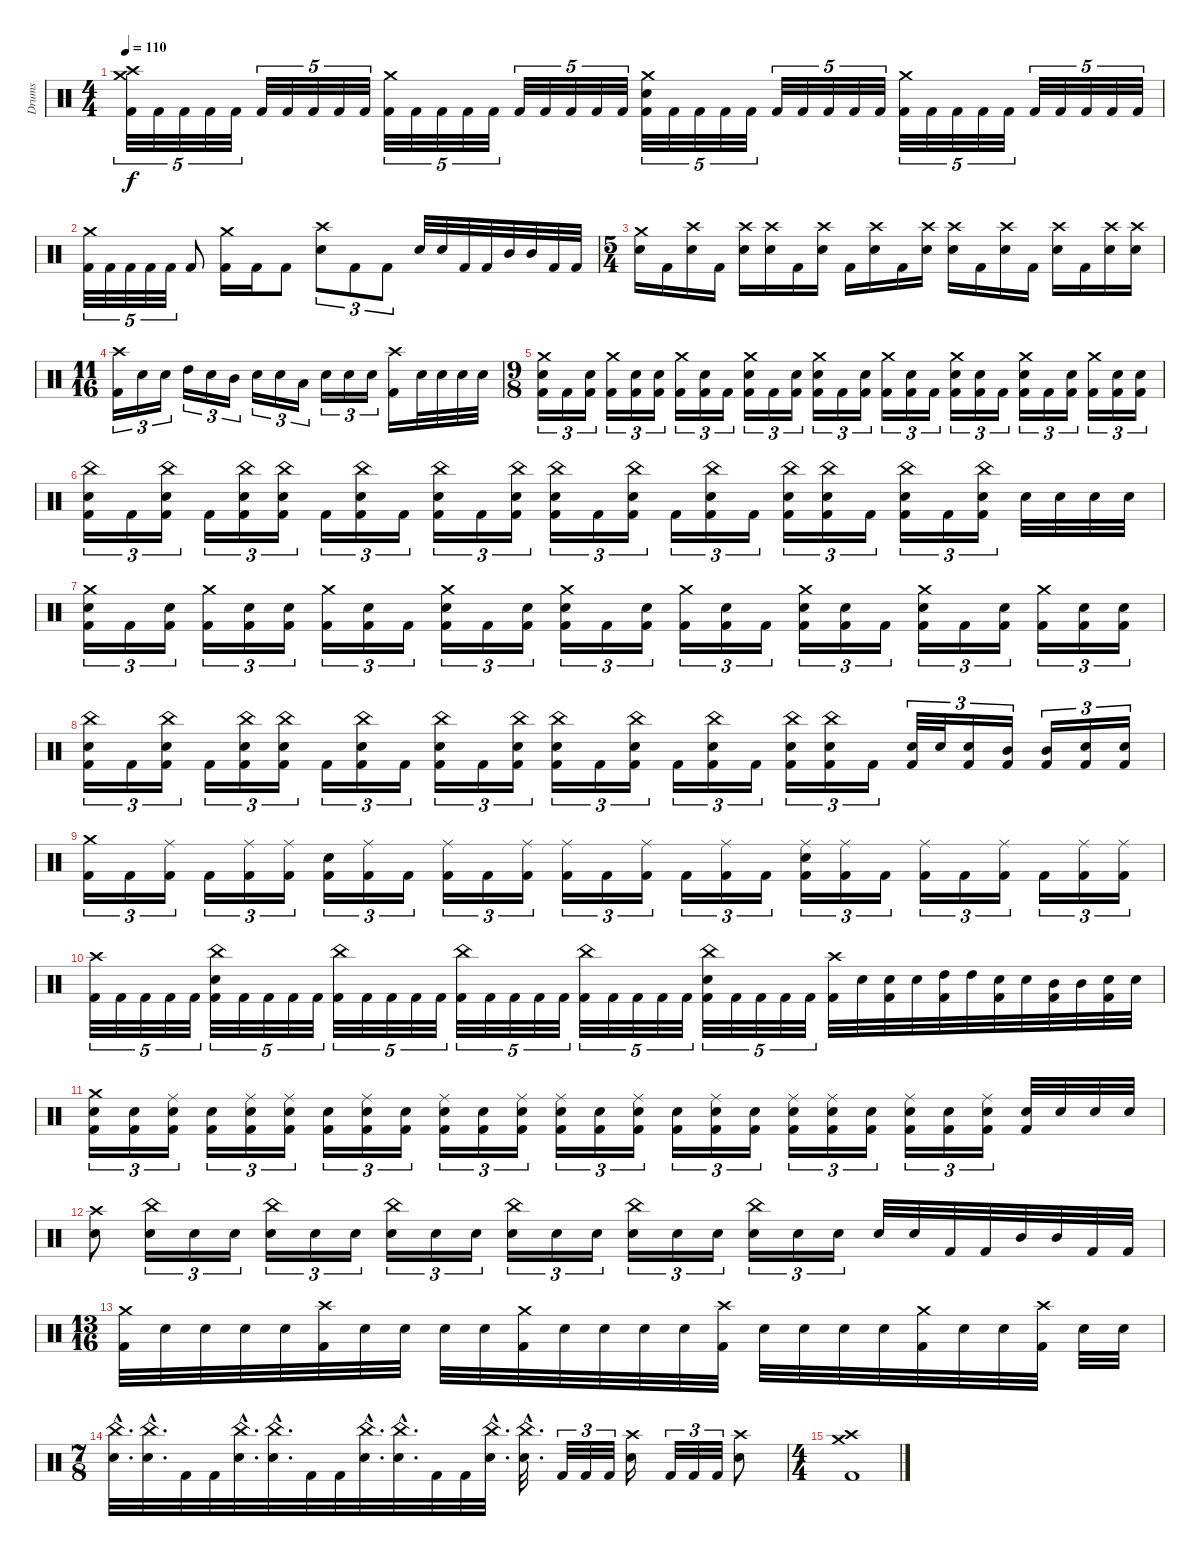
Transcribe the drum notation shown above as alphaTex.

\track ("Drums" "Drums") {instrument percussion}
\staff {score}
\articulation defaults
\ts (4 4)
\tempo 110
\clef neutral
\ks c
("Crash medium (hit)" "Crash high (hit)" "Kick (hit) 2").32{tu (5 4) dy f} "Kick (hit) 2".32{tu (5 4)} "Kick (hit) 2".32{tu (5 4)} "Kick (hit) 2".32{tu (5 4)} "Kick (hit) 2".32{tu (5 4)} "Kick (hit) 2".32{tu (5 4)} "Kick (hit) 2".32{tu (5 4)} "Kick (hit) 2".32{tu (5 4)} "Kick (hit) 2".32{tu (5 4)} "Kick (hit) 2".32{tu (5 4)} ("Crash medium (hit)" "Kick (hit) 2").32{tu (5 4)} "Kick (hit) 2".32{tu (5 4)} "Kick (hit) 2".32{tu (5 4)} "Kick (hit) 2".32{tu (5 4)} "Kick (hit) 2".32{tu (5 4)} "Kick (hit) 2".32{tu (5 4)} "Kick (hit) 2".32{tu (5 4)} "Kick (hit) 2".32{tu (5 4)} "Kick (hit) 2".32{tu (5 4)} "Kick (hit) 2".32{tu (5 4)} ("Crash medium (hit)" "Electric Snare (hit)" "Kick (hit) 2").32{tu (5 4)} "Kick (hit) 2".32{tu (5 4)} "Kick (hit) 2".32{tu (5 4)} "Kick (hit) 2".32{tu (5 4)} "Kick (hit) 2".32{tu (5 4)} "Kick (hit) 2".32{tu (5 4)} "Kick (hit) 2".32{tu (5 4)} "Kick (hit) 2".32{tu (5 4)} "Kick (hit) 2".32{tu (5 4)} "Kick (hit) 2".32{tu (5 4)} ("Crash medium (hit)" "Kick (hit) 2").32{tu (5 4)} "Kick (hit) 2".32{tu (5 4)} "Kick (hit) 2".32{tu (5 4)} "Kick (hit) 2".32{tu (5 4)} "Kick (hit) 2".32{tu (5 4)} "Kick (hit) 2".32{tu (5 4)} "Kick (hit) 2".32{tu (5 4)} "Kick (hit) 2".32{tu (5 4)} "Kick (hit) 2".32{tu (5 4)} "Kick (hit) 2".32{tu (5 4)} |
("Crash medium (hit)" "Kick (hit) 2").32{tu (5 4)} "Kick (hit) 2".32{tu (5 4)} "Kick (hit) 2".32{tu (5 4)} "Kick (hit) 2".32{tu (5 4)} "Kick (hit) 2".32{tu (5 4)} "Kick (hit) 2".8 ("Crash medium (hit)" "Kick (hit) 2").16 "Kick (hit) 2".16 "Kick (hit) 2".8 ("Crash high (hit)" "Electric Snare (hit)").8{tu (3 2)} "Kick (hit) 2".8{tu (3 2)} "Kick (hit) 2".8{tu (3 2)} "Electric Snare (hit)".32 "Electric Snare (hit)".32 "Kick (hit) 2".32 "Kick (hit) 2".32 "Mid Tom (hit)".32 "Mid Tom (hit)".32 "Kick (hit) 2".32 "Kick (hit) 2".32 |
\ts (5 4)
("Crash medium (hit)" "Electric Snare (hit)").16 "Kick (hit) 2".16 ("Crash high (hit)" "Electric Snare (hit)").16 "Kick (hit) 2".16 ("Crash high (hit)" "Electric Snare (hit)").16 ("Crash high (hit)" "Electric Snare (hit)").16 "Kick (hit) 2".16 ("Crash high (hit)" "Electric Snare (hit)").16 "Kick (hit) 2".16 ("Crash high (hit)" "Electric Snare (hit)").16 "Kick (hit) 2".16 ("Crash high (hit)" "Electric Snare (hit)").16 ("Crash high (hit)" "Electric Snare (hit)").16 "Kick (hit) 2".16 ("Crash high (hit)" "Electric Snare (hit)").16 "Kick (hit) 2".16 ("Crash high (hit)" "Electric Snare (hit)").16 "Kick (hit) 2".16 ("Crash high (hit)" "Electric Snare (hit)").16 ("Crash high (hit)" "Electric Snare (hit)").16 |
\ts (11 16)
("Crash high (hit)" "Kick (hit) 2").16{tu (3 2)} "Electric Snare (hit)".16{tu (3 2)} "Electric Snare (hit)".16{tu (3 2)} "High Tom (hit)".16{tu (3 2)} "Electric Snare (hit)".16{tu (3 2)} "Mid Tom (hit)".16{tu (3 2)} "Electric Snare (hit)".16{tu (3 2)} "Electric Snare (hit)".16{tu (3 2)} "Low Tom (hit)".16{tu (3 2)} "Electric Snare (hit)".16{tu (3 2)} "Electric Snare (hit)".16{tu (3 2)} "Electric Snare (hit)".16{tu (3 2)} ("Crash high (hit)" "Kick (hit) 2").16 "Electric Snare (hit)".32 "Electric Snare (hit)".32 "Electric Snare (hit)".32 "Electric Snare (hit)".32 |
\ts (9 8)
("Crash medium (hit)" "Electric Snare (hit)" "Kick (hit) 2").16{tu (3 2)} "Kick (hit) 2".16{tu (3 2)} ("Electric Snare (hit)" "Kick (hit) 2").16{tu (3 2)} ("Crash medium (hit)" "Kick (hit) 2").16{tu (3 2)} ("Electric Snare (hit)" "Kick (hit) 2").16{tu (3 2)} ("Electric Snare (hit)" "Kick (hit) 2").16{tu (3 2)} ("Crash medium (hit)" "Kick (hit) 2").16{tu (3 2)} ("Electric Snare (hit)" "Kick (hit) 2").16{tu (3 2)} "Kick (hit) 2".16{tu (3 2)} ("Crash medium (hit)" "Electric Snare (hit)" "Kick (hit) 2").16{tu (3 2)} "Kick (hit) 2".16{tu (3 2)} ("Electric Snare (hit)" "Kick (hit) 2").16{tu (3 2)} ("Crash medium (hit)" "Electric Snare (hit)" "Kick (hit) 2").16{tu (3 2)} "Kick (hit) 2".16{tu (3 2)} ("Electric Snare (hit)" "Kick (hit) 2").16{tu (3 2)} ("Crash medium (hit)" "Kick (hit) 2").16{tu (3 2)} ("Electric Snare (hit)" "Kick (hit) 2").16{tu (3 2)} "Kick (hit) 2".16{tu (3 2)} ("Crash medium (hit)" "Electric Snare (hit)" "Kick (hit) 2").16{tu (3 2)} ("Electric Snare (hit)" "Kick (hit) 2").16{tu (3 2)} "Kick (hit) 2".16{tu (3 2)} ("Crash medium (hit)" "Electric Snare (hit)" "Kick (hit) 2").16{tu (3 2)} "Kick (hit) 2".16{tu (3 2)} ("Electric Snare (hit)" "Kick (hit) 2").16{tu (3 2)} ("Crash medium (hit)" "Kick (hit) 2").16{tu (3 2)} ("Electric Snare (hit)" "Kick (hit) 2").16{tu (3 2)} ("Electric Snare (hit)" "Kick (hit) 2").16{tu (3 2)} |
("China (hit)" "Electric Snare (hit)" "Kick (hit) 2").16{tu (3 2)} "Kick (hit) 2".16{tu (3 2)} ("China (hit)" "Electric Snare (hit)" "Kick (hit) 2").16{tu (3 2)} "Kick (hit) 2".16{tu (3 2)} ("China (hit)" "Electric Snare (hit)" "Kick (hit) 2").16{tu (3 2)} ("China (hit)" "Electric Snare (hit)" "Kick (hit) 2").16{tu (3 2)} "Kick (hit) 2".16{tu (3 2)} ("China (hit)" "Electric Snare (hit)" "Kick (hit) 2").16{tu (3 2)} "Kick (hit) 2".16{tu (3 2)} ("China (hit)" "Electric Snare (hit)" "Kick (hit) 2").16{tu (3 2)} "Kick (hit) 2".16{tu (3 2)} ("China (hit)" "Electric Snare (hit)" "Kick (hit) 2").16{tu (3 2)} ("China (hit)" "Electric Snare (hit)" "Kick (hit) 2").16{tu (3 2)} "Kick (hit) 2".16{tu (3 2)} ("China (hit)" "Electric Snare (hit)" "Kick (hit) 2").16{tu (3 2)} "Kick (hit) 2".16{tu (3 2)} ("China (hit)" "Electric Snare (hit)" "Kick (hit) 2").16{tu (3 2)} "Kick (hit) 2".16{tu (3 2)} ("China (hit)" "Electric Snare (hit)" "Kick (hit) 2").16{tu (3 2)} ("China (hit)" "Electric Snare (hit)" "Kick (hit) 2").16{tu (3 2)} "Kick (hit) 2".16{tu (3 2)} ("China (hit)" "Electric Snare (hit)" "Kick (hit) 2").16{tu (3 2)} "Kick (hit) 2".16{tu (3 2)} ("China (hit)" "Electric Snare (hit)" "Kick (hit) 2").16{tu (3 2)} "Electric Snare (hit)".32 "Electric Snare (hit)".32 "Electric Snare (hit)".32 "Electric Snare (hit)".32 |
("Crash medium (hit)" "Electric Snare (hit)" "Kick (hit) 2").16{tu (3 2)} "Kick (hit) 2".16{tu (3 2)} ("Electric Snare (hit)" "Kick (hit) 2").16{tu (3 2)} ("Crash medium (hit)" "Kick (hit) 2").16{tu (3 2)} ("Electric Snare (hit)" "Kick (hit) 2").16{tu (3 2)} ("Electric Snare (hit)" "Kick (hit) 2").16{tu (3 2)} ("Crash medium (hit)" "Kick (hit) 2").16{tu (3 2)} ("Electric Snare (hit)" "Kick (hit) 2").16{tu (3 2)} "Kick (hit) 2".16{tu (3 2)} ("Crash medium (hit)" "Electric Snare (hit)" "Kick (hit) 2").16{tu (3 2)} "Kick (hit) 2".16{tu (3 2)} ("Electric Snare (hit)" "Kick (hit) 2").16{tu (3 2)} ("Crash medium (hit)" "Electric Snare (hit)" "Kick (hit) 2").16{tu (3 2)} "Kick (hit) 2".16{tu (3 2)} ("Electric Snare (hit)" "Kick (hit) 2").16{tu (3 2)} ("Crash medium (hit)" "Kick (hit) 2").16{tu (3 2)} ("Electric Snare (hit)" "Kick (hit) 2").16{tu (3 2)} "Kick (hit) 2".16{tu (3 2)} ("Crash medium (hit)" "Electric Snare (hit)" "Kick (hit) 2").16{tu (3 2)} ("Electric Snare (hit)" "Kick (hit) 2").16{tu (3 2)} "Kick (hit) 2".16{tu (3 2)} ("Crash medium (hit)" "Electric Snare (hit)" "Kick (hit) 2").16{tu (3 2)} "Kick (hit) 2".16{tu (3 2)} ("Electric Snare (hit)" "Kick (hit) 2").16{tu (3 2)} ("Crash medium (hit)" "Kick (hit) 2").16{tu (3 2)} ("Electric Snare (hit)" "Kick (hit) 2").16{tu (3 2)} ("Electric Snare (hit)" "Kick (hit) 2").16{tu (3 2)} |
("China (hit)" "Electric Snare (hit)" "Kick (hit) 2").16{tu (3 2)} "Kick (hit) 2".16{tu (3 2)} ("China (hit)" "Electric Snare (hit)" "Kick (hit) 2").16{tu (3 2)} "Kick (hit) 2".16{tu (3 2)} ("China (hit)" "Electric Snare (hit)" "Kick (hit) 2").16{tu (3 2)} ("China (hit)" "Electric Snare (hit)" "Kick (hit) 2").16{tu (3 2)} "Kick (hit) 2".16{tu (3 2)} ("China (hit)" "Electric Snare (hit)" "Kick (hit) 2").16{tu (3 2)} "Kick (hit) 2".16{tu (3 2)} ("China (hit)" "Electric Snare (hit)" "Kick (hit) 2").16{tu (3 2)} "Kick (hit) 2".16{tu (3 2)} ("China (hit)" "Electric Snare (hit)" "Kick (hit) 2").16{tu (3 2)} ("China (hit)" "Electric Snare (hit)" "Kick (hit) 2").16{tu (3 2)} "Kick (hit) 2".16{tu (3 2)} ("China (hit)" "Electric Snare (hit)" "Kick (hit) 2").16{tu (3 2)} "Kick (hit) 2".16{tu (3 2)} ("China (hit)" "Electric Snare (hit)" "Kick (hit) 2").16{tu (3 2)} "Kick (hit) 2".16{tu (3 2)} ("China (hit)" "Electric Snare (hit)" "Kick (hit) 2").16{tu (3 2)} ("China (hit)" "Electric Snare (hit)" "Kick (hit) 2").16{tu (3 2)} "Kick (hit) 2".16{tu (3 2)} ("Electric Snare (hit)" "Kick (hit) 2").32{tu (3 2)} "Electric Snare (hit)".32{tu (3 2)} ("Electric Snare (hit)" "Kick (hit) 2").16{tu (3 2)} ("Mid Tom (hit)" "Kick (hit) 2").16{tu (3 2)} ("Mid Tom (hit)" "Kick (hit) 2").16{tu (3 2)} ("Electric Snare (hit)" "Kick (hit) 2").16{tu (3 2)} ("Electric Snare (hit)" "Kick (hit) 2").16{tu (3 2)} |
("Crash medium (hit)" "Kick (hit) 2").16{tu (3 2)} "Kick (hit) 2".16{tu (3 2)} ("Ride (middle)" "Kick (hit) 2").16{tu (3 2)} "Kick (hit) 2".16{tu (3 2)} ("Ride (middle)" "Kick (hit) 2").16{tu (3 2)} ("Ride (middle)" "Kick (hit) 2").16{tu (3 2)} ("Electric Snare (hit)" "Kick (hit) 2").16{tu (3 2)} ("Ride (middle)" "Kick (hit) 2").16{tu (3 2)} "Kick (hit) 2".16{tu (3 2)} ("Ride (middle)" "Kick (hit) 2").16{tu (3 2)} "Kick (hit) 2".16{tu (3 2)} ("Ride (middle)" "Kick (hit) 2").16{tu (3 2)} ("Ride (middle)" "Kick (hit) 2").16{tu (3 2)} "Kick (hit) 2".16{tu (3 2)} ("Ride (middle)" "Kick (hit) 2").16{tu (3 2)} "Kick (hit) 2".16{tu (3 2)} ("Ride (middle)" "Kick (hit) 2").16{tu (3 2)} "Kick (hit) 2".16{tu (3 2)} ("Ride (middle)" "Electric Snare (hit)" "Kick (hit) 2").16{tu (3 2)} ("Ride (middle)" "Kick (hit) 2").16{tu (3 2)} "Kick (hit) 2".16{tu (3 2)} ("Ride (middle)" "Kick (hit) 2").16{tu (3 2)} "Kick (hit) 2".16{tu (3 2)} ("Ride (middle)" "Kick (hit) 2").16{tu (3 2)} "Kick (hit) 2".16{tu (3 2)} ("Ride (middle)" "Kick (hit) 2").16{tu (3 2)} ("Ride (middle)" "Kick (hit) 2").16{tu (3 2)} |
("Crash high (hit)" "Kick (hit) 2").32{tu (5 4)} "Kick (hit) 2".32{tu (5 4)} "Kick (hit) 2".32{tu (5 4)} "Kick (hit) 2".32{tu (5 4)} "Kick (hit) 2".32{tu (5 4)} ("China (hit)" "Electric Snare (hit)" "Kick (hit) 2").32{tu (5 4)} "Kick (hit) 2".32{tu (5 4)} "Kick (hit) 2".32{tu (5 4)} "Kick (hit) 2".32{tu (5 4)} "Kick (hit) 2".32{tu (5 4)} ("China (hit)" "Kick (hit) 2").32{tu (5 4)} "Kick (hit) 2".32{tu (5 4)} "Kick (hit) 2".32{tu (5 4)} "Kick (hit) 2".32{tu (5 4)} "Kick (hit) 2".32{tu (5 4)} ("China (hit)" "Kick (hit) 2").32{tu (5 4)} "Kick (hit) 2".32{tu (5 4)} "Kick (hit) 2".32{tu (5 4)} "Kick (hit) 2".32{tu (5 4)} "Kick (hit) 2".32{tu (5 4)} ("China (hit)" "Kick (hit) 2").32{tu (5 4)} "Kick (hit) 2".32{tu (5 4)} "Kick (hit) 2".32{tu (5 4)} "Kick (hit) 2".32{tu (5 4)} "Kick (hit) 2".32{tu (5 4)} ("China (hit)" "Electric Snare (hit)" "Kick (hit) 2").32{tu (5 4)} "Kick (hit) 2".32{tu (5 4)} "Kick (hit) 2".32{tu (5 4)} "Kick (hit) 2".32{tu (5 4)} "Kick (hit) 2".32{tu (5 4)} ("Crash high (hit)" "Kick (hit) 2").32 "Electric Snare (hit)".32 ("Electric Snare (hit)" "Kick (hit) 2").32 "Electric Snare (hit)".32 ("High Tom (hit)" "Kick (hit) 2").32 "High Tom (hit)".32 ("Electric Snare (hit)" "Kick (hit) 2").32 "Electric Snare (hit)".32 ("Mid Tom (hit)" "Kick (hit) 2").32 "Mid Tom (hit)".32 ("Electric Snare (hit)" "Kick (hit) 2").32 "Electric Snare (hit)".32 |
("Crash medium (hit)" "Electric Snare (hit)" "Kick (hit) 2").16{tu (3 2)} ("Electric Snare (hit)" "Kick (hit) 2").16{tu (3 2)} ("Ride (middle)" "Electric Snare (hit)" "Kick (hit) 2").16{tu (3 2)} ("Electric Snare (hit)" "Kick (hit) 2").16{tu (3 2)} ("Ride (middle)" "Electric Snare (hit)" "Kick (hit) 2").16{tu (3 2)} ("Ride (middle)" "Electric Snare (hit)" "Kick (hit) 2").16{tu (3 2)} ("Electric Snare (hit)" "Kick (hit) 2").16{tu (3 2)} ("Ride (middle)" "Electric Snare (hit)" "Kick (hit) 2").16{tu (3 2)} ("Electric Snare (hit)" "Kick (hit) 2").16{tu (3 2)} ("Ride (middle)" "Electric Snare (hit)" "Kick (hit) 2").16{tu (3 2)} ("Electric Snare (hit)" "Kick (hit) 2").16{tu (3 2)} ("Ride (middle)" "Electric Snare (hit)" "Kick (hit) 2").16{tu (3 2)} ("Ride (middle)" "Electric Snare (hit)" "Kick (hit) 2").16{tu (3 2)} ("Electric Snare (hit)" "Kick (hit) 2").16{tu (3 2)} ("Ride (middle)" "Electric Snare (hit)" "Kick (hit) 2").16{tu (3 2)} ("Electric Snare (hit)" "Kick (hit) 2").16{tu (3 2)} ("Ride (middle)" "Electric Snare (hit)" "Kick (hit) 2").16{tu (3 2)} ("Electric Snare (hit)" "Kick (hit) 2").16{tu (3 2)} ("Ride (middle)" "Electric Snare (hit)" "Kick (hit) 2").16{tu (3 2)} ("Ride (middle)" "Electric Snare (hit)" "Kick (hit) 2").16{tu (3 2)} ("Electric Snare (hit)" "Kick (hit) 2").16{tu (3 2)} ("Ride (middle)" "Electric Snare (hit)" "Kick (hit) 2").16{tu (3 2)} ("Electric Snare (hit)" "Kick (hit) 2").16{tu (3 2)} ("Ride (middle)" "Electric Snare (hit)" "Kick (hit) 2").16{tu (3 2)} ("Electric Snare (hit)" "Kick (hit) 2").32 "Electric Snare (hit)".32 "Electric Snare (hit)".32 "Electric Snare (hit)".32 |
("Crash high (hit)" "Electric Snare (hit)").8 ("China (hit)" "Electric Snare (hit)").16{tu (3 2)} "Electric Snare (hit)".16{tu (3 2)} "Electric Snare (hit)".16{tu (3 2)} ("China (hit)" "Electric Snare (hit)").16{tu (3 2)} "Electric Snare (hit)".16{tu (3 2)} "Electric Snare (hit)".16{tu (3 2)} ("China (hit)" "Electric Snare (hit)").16{tu (3 2)} "Electric Snare (hit)".16{tu (3 2)} "Electric Snare (hit)".16{tu (3 2)} ("China (hit)" "Electric Snare (hit)").16{tu (3 2)} "Electric Snare (hit)".16{tu (3 2)} "Electric Snare (hit)".16{tu (3 2)} ("China (hit)" "Electric Snare (hit)").16{tu (3 2)} "Electric Snare (hit)".16{tu (3 2)} "Electric Snare (hit)".16{tu (3 2)} ("China (hit)" "Electric Snare (hit)").16{tu (3 2)} "Electric Snare (hit)".16{tu (3 2)} "Electric Snare (hit)".16{tu (3 2)} "Electric Snare (hit)".32 "Electric Snare (hit)".32 "Kick (hit) 2".32 "Kick (hit) 2".32 "Mid Tom (hit)".32 "Mid Tom (hit)".32 "Kick (hit) 2".32 "Kick (hit) 2".32 |
\ts (13 16)
("Crash medium (hit)" "Kick (hit) 2").32 "Electric Snare (hit)".32 "Electric Snare (hit)".32 "Electric Snare (hit)".32 "Electric Snare (hit)".32 ("Crash high (hit)" "Kick (hit) 2").32 "Electric Snare (hit)".32 "Electric Snare (hit)".32 "Electric Snare (hit)".32 "Electric Snare (hit)".32 ("Crash medium (hit)" "Kick (hit) 2").32 "Electric Snare (hit)".32 "Electric Snare (hit)".32 "Electric Snare (hit)".32 "Electric Snare (hit)".32 ("Crash high (hit)" "Kick (hit) 2").32 "Electric Snare (hit)".32 "Electric Snare (hit)".32 "Electric Snare (hit)".32 "Electric Snare (hit)".32 ("Crash medium (hit)" "Kick (hit) 2").32 "Electric Snare (hit)".32 "Electric Snare (hit)".32 ("Crash high (hit)" "Kick (hit) 2").32 "Electric Snare (hit)".32 "Electric Snare (hit)".32 |
\ts (7 8)
("China (hit)"{hac} "Electric Snare (hit)"{hac}).32{d} ("China (hit)"{hac} "Electric Snare (hit)"{hac}).32{d} "Kick (hit) 2".32 "Kick (hit) 2".32 ("China (hit)"{hac} "Electric Snare (hit)"{hac}).32{d} ("China (hit)"{hac} "Electric Snare (hit)"{hac}).32{d} "Kick (hit) 2".32 "Kick (hit) 2".32 ("China (hit)"{hac} "Electric Snare (hit)"{hac}).32{d} ("China (hit)"{hac} "Electric Snare (hit)"{hac}).32{d} "Kick (hit) 2".32 "Kick (hit) 2".32 ("China (hit)"{hac} "Electric Snare (hit)"{hac}).32{d} ("China (hit)"{hac} "Electric Snare (hit)"{hac}).32{d} "Kick (hit) 2".32{tu (3 2)} "Kick (hit) 2".32{tu (3 2)} "Kick (hit) 2".32{tu (3 2)} ("Crash high (hit)" "Electric Snare (hit)").16 "Kick (hit) 2".32{tu (3 2)} "Kick (hit) 2".32{tu (3 2)} "Kick (hit) 2".32{tu (3 2)} ("Crash high (hit)" "Electric Snare (hit)").8 |
\ts (4 4)
("Crash medium (hit)" "Crash high (hit)" "Kick (hit) 2").1
